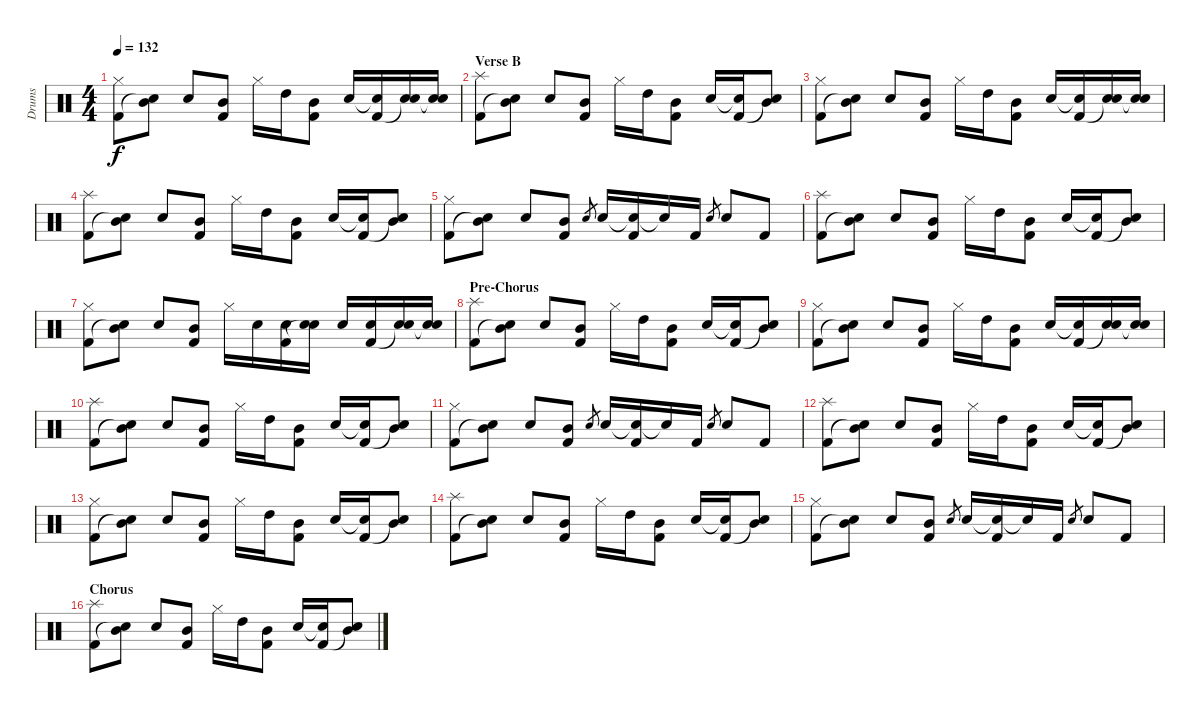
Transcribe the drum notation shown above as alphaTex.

\track ("Drums" "Drums") {instrument percussion}
\staff {score}
\articulation defaults
\ts (4 4)
\tempo 132
\clef neutral
\ks c
("Hi-Hat (closed)" "Kick (hit) 2").8{dy f} ("Mid Tom (hit)" "Snare (hit)"{t}).8 "Electric Snare (hit)".8 ("Mid Tom (hit)" "Kick (hit) 2").8 "Hi-Hat (closed)".16 "High Tom (hit)".16 ("Mid Tom (hit)" "Kick (hit) 2").8 "Electric Snare (hit)".16 ("Snare (hit)"{t} "Kick (hit) 2").16 ("Electric Snare (hit)" "Snare (hit)"{t}).16 ("Electric Snare (hit)" "Snare (hit)"{t}).16 |
\section ("" "Verse B")
("Splash (hit)" "Kick (hit) 2").8 ("Mid Tom (hit)" "Snare (hit)"{t}).8 "Electric Snare (hit)".8 ("Mid Tom (hit)" "Kick (hit) 2").8 "Hi-Hat (closed)".16 "High Tom (hit)".16 ("Mid Tom (hit)" "Kick (hit) 2").8 "Electric Snare (hit)".16 ("Snare (hit)"{t} "Kick (hit) 2").16 ("Mid Tom (hit)" "Snare (hit)"{t}).8 |
("Hi-Hat (closed)" "Kick (hit) 2").8 ("Mid Tom (hit)" "Snare (hit)"{t}).8 "Electric Snare (hit)".8 ("Mid Tom (hit)" "Kick (hit) 2").8 "Hi-Hat (closed)".16 "High Tom (hit)".16 ("Mid Tom (hit)" "Kick (hit) 2").8 "Electric Snare (hit)".16 ("Snare (hit)"{t} "Kick (hit) 2").16 ("Electric Snare (hit)" "Snare (hit)"{t}).16 ("Electric Snare (hit)" "Snare (hit)"{t}).16 |
("Splash (hit)" "Kick (hit) 2").8 ("Mid Tom (hit)" "Snare (hit)"{t}).8 "Electric Snare (hit)".8 ("Mid Tom (hit)" "Kick (hit) 2").8 "Hi-Hat (closed)".16 "High Tom (hit)".16 ("Mid Tom (hit)" "Kick (hit) 2").8 "Electric Snare (hit)".16 ("Snare (hit)"{t} "Kick (hit) 2").16 ("Mid Tom (hit)" "Snare (hit)"{t}).8 |
("Hi-Hat (closed)" "Kick (hit) 2").8 ("Mid Tom (hit)" "Snare (hit)"{t}).8 "Electric Snare (hit)".8 ("Mid Tom (hit)" "Kick (hit) 2").8 "Electric Snare (hit)".8{gr} "Electric Snare (hit)".16 ("Snare (hit)"{t} "Kick (hit) 2").16 "Snare (hit)"{t}.16 "Kick (hit) 2".16 "Electric Snare (hit)".8{gr} "Electric Snare (hit)".8 "Kick (hit) 2".8 |
("Splash (hit)" "Kick (hit) 2").8 ("Mid Tom (hit)" "Snare (hit)"{t}).8 "Electric Snare (hit)".8 ("Mid Tom (hit)" "Kick (hit) 2").8 "Hi-Hat (closed)".16 "High Tom (hit)".16 ("Mid Tom (hit)" "Kick (hit) 2").8 "Electric Snare (hit)".16 ("Snare (hit)"{t} "Kick (hit) 2").16 ("Mid Tom (hit)" "Snare (hit)"{t}).8 |
("Hi-Hat (closed)" "Kick (hit) 2").8 ("Mid Tom (hit)" "Snare (hit)"{t}).8 "Electric Snare (hit)".8 ("Mid Tom (hit)" "Kick (hit) 2").8 "Hi-Hat (closed)".16 "Electric Snare (hit)".16 ("Electric Snare (hit)" "Kick (hit) 2").16 ("Electric Snare (hit)" "Snare (hit)"{t}).16 "Electric Snare (hit)".16 ("Electric Snare (hit)" "Kick (hit) 2").16 ("Electric Snare (hit)" "Snare (hit)"{t}).16 ("Electric Snare (hit)" "Snare (hit)"{t}).16 |
\section ("" "Pre-Chorus")
("Splash (hit)" "Kick (hit) 2").8 ("Mid Tom (hit)" "Snare (hit)"{t}).8 "Electric Snare (hit)".8 ("Mid Tom (hit)" "Kick (hit) 2").8 "Hi-Hat (closed)".16 "High Tom (hit)".16 ("Mid Tom (hit)" "Kick (hit) 2").8 "Electric Snare (hit)".16 ("Snare (hit)"{t} "Kick (hit) 2").16 ("Mid Tom (hit)" "Snare (hit)"{t}).8 |
("Hi-Hat (closed)" "Kick (hit) 2").8 ("Mid Tom (hit)" "Snare (hit)"{t}).8 "Electric Snare (hit)".8 ("Mid Tom (hit)" "Kick (hit) 2").8 "Hi-Hat (closed)".16 "High Tom (hit)".16 ("Mid Tom (hit)" "Kick (hit) 2").8 "Electric Snare (hit)".16 ("Snare (hit)"{t} "Kick (hit) 2").16 ("Electric Snare (hit)" "Snare (hit)"{t}).16 ("Electric Snare (hit)" "Snare (hit)"{t}).16 |
("Splash (hit)" "Kick (hit) 2").8 ("Mid Tom (hit)" "Snare (hit)"{t}).8 "Electric Snare (hit)".8 ("Mid Tom (hit)" "Kick (hit) 2").8 "Hi-Hat (closed)".16 "High Tom (hit)".16 ("Mid Tom (hit)" "Kick (hit) 2").8 "Electric Snare (hit)".16 ("Snare (hit)"{t} "Kick (hit) 2").16 ("Mid Tom (hit)" "Snare (hit)"{t}).8 |
("Hi-Hat (closed)" "Kick (hit) 2").8 ("Mid Tom (hit)" "Snare (hit)"{t}).8 "Electric Snare (hit)".8 ("Mid Tom (hit)" "Kick (hit) 2").8 "Electric Snare (hit)".8{gr} "Electric Snare (hit)".16 ("Snare (hit)"{t} "Kick (hit) 2").16 "Snare (hit)"{t}.16 "Kick (hit) 2".16 "Electric Snare (hit)".8{gr} "Electric Snare (hit)".8 "Kick (hit) 2".8 |
("Splash (hit)" "Kick (hit) 2").8 ("Mid Tom (hit)" "Snare (hit)"{t}).8 "Electric Snare (hit)".8 ("Mid Tom (hit)" "Kick (hit) 2").8 "Hi-Hat (closed)".16 "High Tom (hit)".16 ("Mid Tom (hit)" "Kick (hit) 2").8 "Electric Snare (hit)".16 ("Snare (hit)"{t} "Kick (hit) 2").16 ("Mid Tom (hit)" "Snare (hit)"{t}).8 |
("Hi-Hat (closed)" "Kick (hit) 2").8 ("Mid Tom (hit)" "Snare (hit)"{t}).8 "Electric Snare (hit)".8 ("Mid Tom (hit)" "Kick (hit) 2").8 "Hi-Hat (closed)".16 "High Tom (hit)".16 ("Mid Tom (hit)" "Kick (hit) 2").8 "Electric Snare (hit)".16 ("Snare (hit)"{t} "Kick (hit) 2").16 ("Mid Tom (hit)" "Snare (hit)"{t}).8 |
("Splash (hit)" "Kick (hit) 2").8 ("Mid Tom (hit)" "Snare (hit)"{t}).8 "Electric Snare (hit)".8 ("Mid Tom (hit)" "Kick (hit) 2").8 "Hi-Hat (closed)".16 "High Tom (hit)".16 ("Mid Tom (hit)" "Kick (hit) 2").8 "Electric Snare (hit)".16 ("Snare (hit)"{t} "Kick (hit) 2").16 ("Mid Tom (hit)" "Snare (hit)"{t}).8 |
("Hi-Hat (closed)" "Kick (hit) 2").8 ("Mid Tom (hit)" "Snare (hit)"{t}).8 "Electric Snare (hit)".8 ("Mid Tom (hit)" "Kick (hit) 2").8 "Electric Snare (hit)".8{gr} "Electric Snare (hit)".16 ("Snare (hit)"{t} "Kick (hit) 2").16 "Snare (hit)"{t}.16 "Kick (hit) 2".16 "Electric Snare (hit)".8{gr} "Electric Snare (hit)".8 "Kick (hit) 2".8 |
\section ("" "Chorus")
("Splash (hit)" "Kick (hit) 2").8 ("Mid Tom (hit)" "Snare (hit)"{t}).8 "Electric Snare (hit)".8 ("Mid Tom (hit)" "Kick (hit) 2").8 "Hi-Hat (closed)".16 "High Tom (hit)".16 ("Mid Tom (hit)" "Kick (hit) 2").8 "Electric Snare (hit)".16 ("Snare (hit)"{t} "Kick (hit) 2").16 ("Mid Tom (hit)" "Snare (hit)"{t}).8
